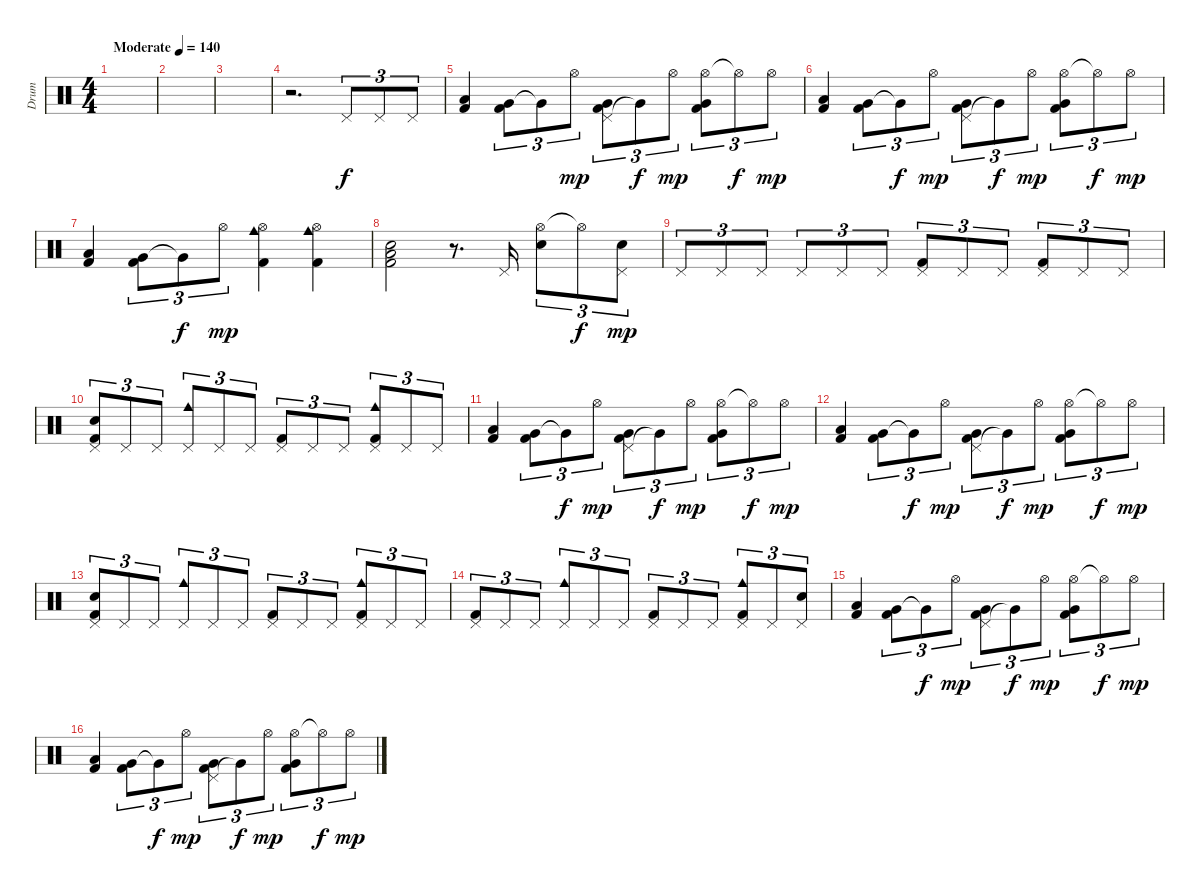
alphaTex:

\track ("Drum" "Drum") {instrument percussion}
\staff {score}
\articulation defaults
\ts (4 4)
\tempo (140 "Moderate")
\clef neutral
\ks c
|
|
|
r.2{d} "Pedal Hi-Hat (hit)".8{tu (3 2)} "Pedal Hi-Hat (hit)".8{tu (3 2)} "Pedal Hi-Hat (hit)".8{tu (3 2)} |
("Low Tom (hit)" "Kick (hit) 2").4 ("Very Low Tom (hit)" "Kick (hit) 2").8{tu (3 2)} "Very Low Tom (hit)"{t}.8{tu (3 2) dy f} "Hi-Hat (open)".8{tu (3 2) dy mp} ("Pedal Hi-Hat (hit)" "Very Low Tom (hit)" "Kick (hit) 2").8{tu (3 2)} "Very Low Tom (hit)"{t}.8{tu (3 2) dy f} "Hi-Hat (open)".8{tu (3 2) dy mp} ("Hi-Hat (open)" "Very Low Tom (hit)" "Kick (hit) 2").8{tu (3 2)} "Hi-Hat (open)"{t}.8{tu (3 2) dy f} "Hi-Hat (open)".8{tu (3 2) dy mp} |
("Low Tom (hit)" "Kick (hit) 2").4 ("Very Low Tom (hit)" "Kick (hit) 2").8{tu (3 2)} "Very Low Tom (hit)"{t}.8{tu (3 2) dy f} "Hi-Hat (open)".8{tu (3 2) dy mp} ("Pedal Hi-Hat (hit)" "Very Low Tom (hit)" "Kick (hit) 2").8{tu (3 2)} "Very Low Tom (hit)"{t}.8{tu (3 2) dy f} "Hi-Hat (open)".8{tu (3 2) dy mp} ("Hi-Hat (open)" "Very Low Tom (hit)" "Kick (hit) 2").8{tu (3 2)} "Hi-Hat (open)"{t}.8{tu (3 2) dy f} "Hi-Hat (open)".8{tu (3 2) dy mp} |
("Low Tom (hit)" "Kick (hit) 2").4 ("Very Low Tom (hit)" "Kick (hit) 2").8{tu (3 2)} "Very Low Tom (hit)"{t}.8{tu (3 2) dy f} "Hi-Hat (open)".8{tu (3 2) dy mp} ("Hi-Hat (open)" "Cowbell medium (hit)" "Kick (hit) 2").4 ("Hi-Hat (open)" "Cowbell medium (hit)" "Kick (hit) 2").4 |
("Electric Snare (hit)" "Low Tom (hit)" "Kick (hit) 2").2 r.8{d} "Pedal Hi-Hat (hit)".16 ("Hi-Hat (open)" "Electric Snare (hit)").8{tu (3 2)} "Hi-Hat (open)"{t}.8{tu (3 2) dy f} ("Pedal Hi-Hat (hit)" "Electric Snare (hit)").8{tu (3 2) dy mp} |
"Pedal Hi-Hat (hit)".8{tu (3 2)} "Pedal Hi-Hat (hit)".8{tu (3 2)} "Pedal Hi-Hat (hit)".8{tu (3 2)} "Pedal Hi-Hat (hit)".8{tu (3 2)} "Pedal Hi-Hat (hit)".8{tu (3 2)} "Pedal Hi-Hat (hit)".8{tu (3 2)} ("Pedal Hi-Hat (hit)" "Kick (hit) 2").8{tu (3 2)} "Pedal Hi-Hat (hit)".8{tu (3 2)} "Pedal Hi-Hat (hit)".8{tu (3 2)} ("Pedal Hi-Hat (hit)" "Kick (hit) 2").8{tu (3 2)} "Pedal Hi-Hat (hit)".8{tu (3 2)} "Pedal Hi-Hat (hit)".8{tu (3 2)} |
("Electric Snare (hit)" "Pedal Hi-Hat (hit)" "Kick (hit) 2").8{tu (3 2)} "Pedal Hi-Hat (hit)".8{tu (3 2)} "Pedal Hi-Hat (hit)".8{tu (3 2)} ("Cowbell medium (hit)" "Pedal Hi-Hat (hit)").8{tu (3 2)} "Pedal Hi-Hat (hit)".8{tu (3 2)} "Pedal Hi-Hat (hit)".8{tu (3 2)} ("Pedal Hi-Hat (hit)" "Kick (hit) 2").8{tu (3 2)} "Pedal Hi-Hat (hit)".8{tu (3 2)} "Pedal Hi-Hat (hit)".8{tu (3 2)} ("Cowbell medium (hit)" "Pedal Hi-Hat (hit)" "Kick (hit) 2").8{tu (3 2)} "Pedal Hi-Hat (hit)".8{tu (3 2)} "Pedal Hi-Hat (hit)".8{tu (3 2)} |
("Low Tom (hit)" "Kick (hit) 2").4 ("Very Low Tom (hit)" "Kick (hit) 2").8{tu (3 2)} "Very Low Tom (hit)"{t}.8{tu (3 2) dy f} "Hi-Hat (open)".8{tu (3 2) dy mp} ("Pedal Hi-Hat (hit)" "Very Low Tom (hit)" "Kick (hit) 2").8{tu (3 2)} "Very Low Tom (hit)"{t}.8{tu (3 2) dy f} "Hi-Hat (open)".8{tu (3 2) dy mp} ("Hi-Hat (open)" "Very Low Tom (hit)" "Kick (hit) 2").8{tu (3 2)} "Hi-Hat (open)"{t}.8{tu (3 2) dy f} "Hi-Hat (open)".8{tu (3 2) dy mp} |
("Low Tom (hit)" "Kick (hit) 2").4 ("Very Low Tom (hit)" "Kick (hit) 2").8{tu (3 2)} "Very Low Tom (hit)"{t}.8{tu (3 2) dy f} "Hi-Hat (open)".8{tu (3 2) dy mp} ("Pedal Hi-Hat (hit)" "Very Low Tom (hit)" "Kick (hit) 2").8{tu (3 2)} "Very Low Tom (hit)"{t}.8{tu (3 2) dy f} "Hi-Hat (open)".8{tu (3 2) dy mp} ("Hi-Hat (open)" "Very Low Tom (hit)" "Kick (hit) 2").8{tu (3 2)} "Hi-Hat (open)"{t}.8{tu (3 2) dy f} "Hi-Hat (open)".8{tu (3 2) dy mp} |
("Electric Snare (hit)" "Pedal Hi-Hat (hit)" "Kick (hit) 2").8{tu (3 2)} "Pedal Hi-Hat (hit)".8{tu (3 2)} "Pedal Hi-Hat (hit)".8{tu (3 2)} ("Cowbell medium (hit)" "Pedal Hi-Hat (hit)").8{tu (3 2)} "Pedal Hi-Hat (hit)".8{tu (3 2)} "Pedal Hi-Hat (hit)".8{tu (3 2)} ("Pedal Hi-Hat (hit)" "Kick (hit) 2").8{tu (3 2)} "Pedal Hi-Hat (hit)".8{tu (3 2)} "Pedal Hi-Hat (hit)".8{tu (3 2)} ("Cowbell medium (hit)" "Pedal Hi-Hat (hit)" "Kick (hit) 2").8{tu (3 2)} "Pedal Hi-Hat (hit)".8{tu (3 2)} "Pedal Hi-Hat (hit)".8{tu (3 2)} |
("Pedal Hi-Hat (hit)" "Kick (hit) 2").8{tu (3 2)} "Pedal Hi-Hat (hit)".8{tu (3 2)} "Pedal Hi-Hat (hit)".8{tu (3 2)} ("Cowbell medium (hit)" "Pedal Hi-Hat (hit)").8{tu (3 2)} "Pedal Hi-Hat (hit)".8{tu (3 2)} "Pedal Hi-Hat (hit)".8{tu (3 2)} ("Pedal Hi-Hat (hit)" "Kick (hit) 2").8{tu (3 2)} "Pedal Hi-Hat (hit)".8{tu (3 2)} "Pedal Hi-Hat (hit)".8{tu (3 2)} ("Cowbell medium (hit)" "Pedal Hi-Hat (hit)" "Kick (hit) 2").8{tu (3 2)} "Pedal Hi-Hat (hit)".8{tu (3 2)} ("Electric Snare (hit)" "Pedal Hi-Hat (hit)").8{tu (3 2)} |
("Low Tom (hit)" "Kick (hit) 2").4 ("Very Low Tom (hit)" "Kick (hit) 2").8{tu (3 2)} "Very Low Tom (hit)"{t}.8{tu (3 2) dy f} "Hi-Hat (open)".8{tu (3 2) dy mp} ("Pedal Hi-Hat (hit)" "Very Low Tom (hit)" "Kick (hit) 2").8{tu (3 2)} "Very Low Tom (hit)"{t}.8{tu (3 2) dy f} "Hi-Hat (open)".8{tu (3 2) dy mp} ("Hi-Hat (open)" "Very Low Tom (hit)" "Kick (hit) 2").8{tu (3 2)} "Hi-Hat (open)"{t}.8{tu (3 2) dy f} "Hi-Hat (open)".8{tu (3 2) dy mp} |
("Low Tom (hit)" "Kick (hit) 2").4 ("Very Low Tom (hit)" "Kick (hit) 2").8{tu (3 2)} "Very Low Tom (hit)"{t}.8{tu (3 2) dy f} "Hi-Hat (open)".8{tu (3 2) dy mp} ("Pedal Hi-Hat (hit)" "Very Low Tom (hit)" "Kick (hit) 2").8{tu (3 2)} "Very Low Tom (hit)"{t}.8{tu (3 2) dy f} "Hi-Hat (open)".8{tu (3 2) dy mp} ("Hi-Hat (open)" "Very Low Tom (hit)" "Kick (hit) 2").8{tu (3 2)} "Hi-Hat (open)"{t}.8{tu (3 2) dy f} "Hi-Hat (open)".8{tu (3 2) dy mp}
